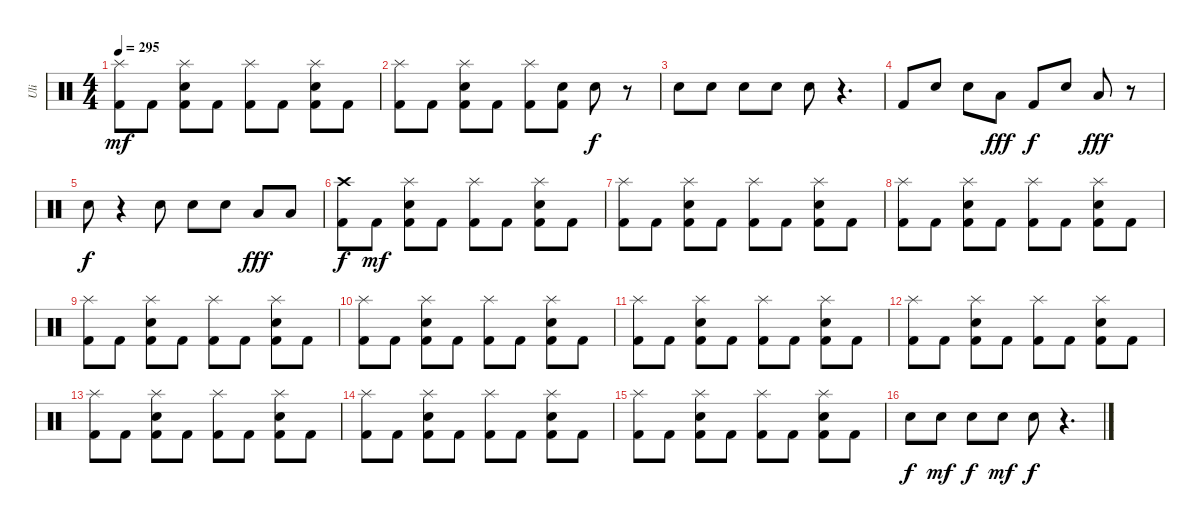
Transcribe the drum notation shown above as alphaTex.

\track ("Uli" "Uli") {instrument percussion}
\staff {score}
\articulation defaults
\ts (4 4)
\tempo 295
\clef neutral
\ks c
("Splash (hit)" "Kick (hit) 2").8{dy mf} "Kick (hit) 2".8{volume 16} ("Splash (hit)" "Electric Snare (hit)" "Kick (hit) 2").8 "Kick (hit) 2".8 ("Splash (hit)" "Kick (hit) 2").8 "Kick (hit) 2".8 ("Splash (hit)" "Electric Snare (hit)" "Kick (hit) 2").8 "Kick (hit) 2".8 |
("Splash (hit)" "Kick (hit) 2").8 "Kick (hit) 2".8{volume 16} ("Splash (hit)" "Electric Snare (hit)" "Kick (hit) 2").8 "Kick (hit) 2".8 ("Splash (hit)" "Kick (hit) 2").8 ("Electric Snare (hit)" "Kick (hit) 2").8 "Electric Snare (hit)".8{dy f} r.8 |
"Electric Snare (hit)".8 "Electric Snare (hit)".8 "Electric Snare (hit)".8 "Electric Snare (hit)".8 "Electric Snare (hit)".8 r.4{d} |
"Kick (hit) 2".8 "Electric Snare (hit)".8 "Electric Snare (hit)".8 "Low Tom (hit)".8{dy fff} "Kick (hit) 2".8{dy f} "Electric Snare (hit)".8 "Low Tom (hit)".8{dy fff} r.8 |
"Electric Snare (hit)".8{dy f} r.4 "Electric Snare (hit)".8 "Electric Snare (hit)".8 "Electric Snare (hit)".8 "Low Tom (hit)".8{dy fff} "Low Tom (hit)".8 |
("Crash high (hit)" "Kick (hit) 2").8{dy f} "Kick (hit) 2".8{dy mf volume 16} ("Splash (hit)" "Electric Snare (hit)" "Kick (hit) 2").8 "Kick (hit) 2".8 ("Splash (hit)" "Kick (hit) 2").8 "Kick (hit) 2".8 ("Splash (hit)" "Electric Snare (hit)" "Kick (hit) 2").8 "Kick (hit) 2".8 |
("Splash (hit)" "Kick (hit) 2").8 "Kick (hit) 2".8{volume 16} ("Splash (hit)" "Electric Snare (hit)" "Kick (hit) 2").8 "Kick (hit) 2".8 ("Splash (hit)" "Kick (hit) 2").8 "Kick (hit) 2".8 ("Splash (hit)" "Electric Snare (hit)" "Kick (hit) 2").8 "Kick (hit) 2".8 |
("Splash (hit)" "Kick (hit) 2").8 "Kick (hit) 2".8{volume 16} ("Splash (hit)" "Electric Snare (hit)" "Kick (hit) 2").8 "Kick (hit) 2".8 ("Splash (hit)" "Kick (hit) 2").8 "Kick (hit) 2".8 ("Splash (hit)" "Electric Snare (hit)" "Kick (hit) 2").8 "Kick (hit) 2".8 |
("Splash (hit)" "Kick (hit) 2").8 "Kick (hit) 2".8{volume 16} ("Splash (hit)" "Electric Snare (hit)" "Kick (hit) 2").8 "Kick (hit) 2".8 ("Splash (hit)" "Kick (hit) 2").8 "Kick (hit) 2".8 ("Splash (hit)" "Electric Snare (hit)" "Kick (hit) 2").8 "Kick (hit) 2".8 |
("Splash (hit)" "Kick (hit) 2").8 "Kick (hit) 2".8{volume 16} ("Splash (hit)" "Electric Snare (hit)" "Kick (hit) 2").8 "Kick (hit) 2".8 ("Splash (hit)" "Kick (hit) 2").8 "Kick (hit) 2".8 ("Splash (hit)" "Electric Snare (hit)" "Kick (hit) 2").8 "Kick (hit) 2".8 |
("Splash (hit)" "Kick (hit) 2").8 "Kick (hit) 2".8{volume 16} ("Splash (hit)" "Electric Snare (hit)" "Kick (hit) 2").8 "Kick (hit) 2".8 ("Splash (hit)" "Kick (hit) 2").8 "Kick (hit) 2".8 ("Splash (hit)" "Electric Snare (hit)" "Kick (hit) 2").8 "Kick (hit) 2".8 |
("Splash (hit)" "Kick (hit) 2").8 "Kick (hit) 2".8{volume 16} ("Splash (hit)" "Electric Snare (hit)" "Kick (hit) 2").8 "Kick (hit) 2".8 ("Splash (hit)" "Kick (hit) 2").8 "Kick (hit) 2".8 ("Splash (hit)" "Electric Snare (hit)" "Kick (hit) 2").8 "Kick (hit) 2".8 |
("Splash (hit)" "Kick (hit) 2").8 "Kick (hit) 2".8{volume 16} ("Splash (hit)" "Electric Snare (hit)" "Kick (hit) 2").8 "Kick (hit) 2".8 ("Splash (hit)" "Kick (hit) 2").8 "Kick (hit) 2".8 ("Splash (hit)" "Electric Snare (hit)" "Kick (hit) 2").8 "Kick (hit) 2".8 |
("Splash (hit)" "Kick (hit) 2").8 "Kick (hit) 2".8{volume 16} ("Splash (hit)" "Electric Snare (hit)" "Kick (hit) 2").8 "Kick (hit) 2".8 ("Splash (hit)" "Kick (hit) 2").8 "Kick (hit) 2".8 ("Splash (hit)" "Electric Snare (hit)" "Kick (hit) 2").8 "Kick (hit) 2".8 |
("Splash (hit)" "Kick (hit) 2").8 "Kick (hit) 2".8{volume 16} ("Splash (hit)" "Electric Snare (hit)" "Kick (hit) 2").8 "Kick (hit) 2".8 ("Splash (hit)" "Kick (hit) 2").8 "Kick (hit) 2".8 ("Splash (hit)" "Electric Snare (hit)" "Kick (hit) 2").8 "Kick (hit) 2".8 |
"Electric Snare (hit)".8{dy f} "Electric Snare (hit)".8{dy mf} "Electric Snare (hit)".8{dy f} "Electric Snare (hit)".8{dy mf} "Electric Snare (hit)".8{dy f} r.4{d}
